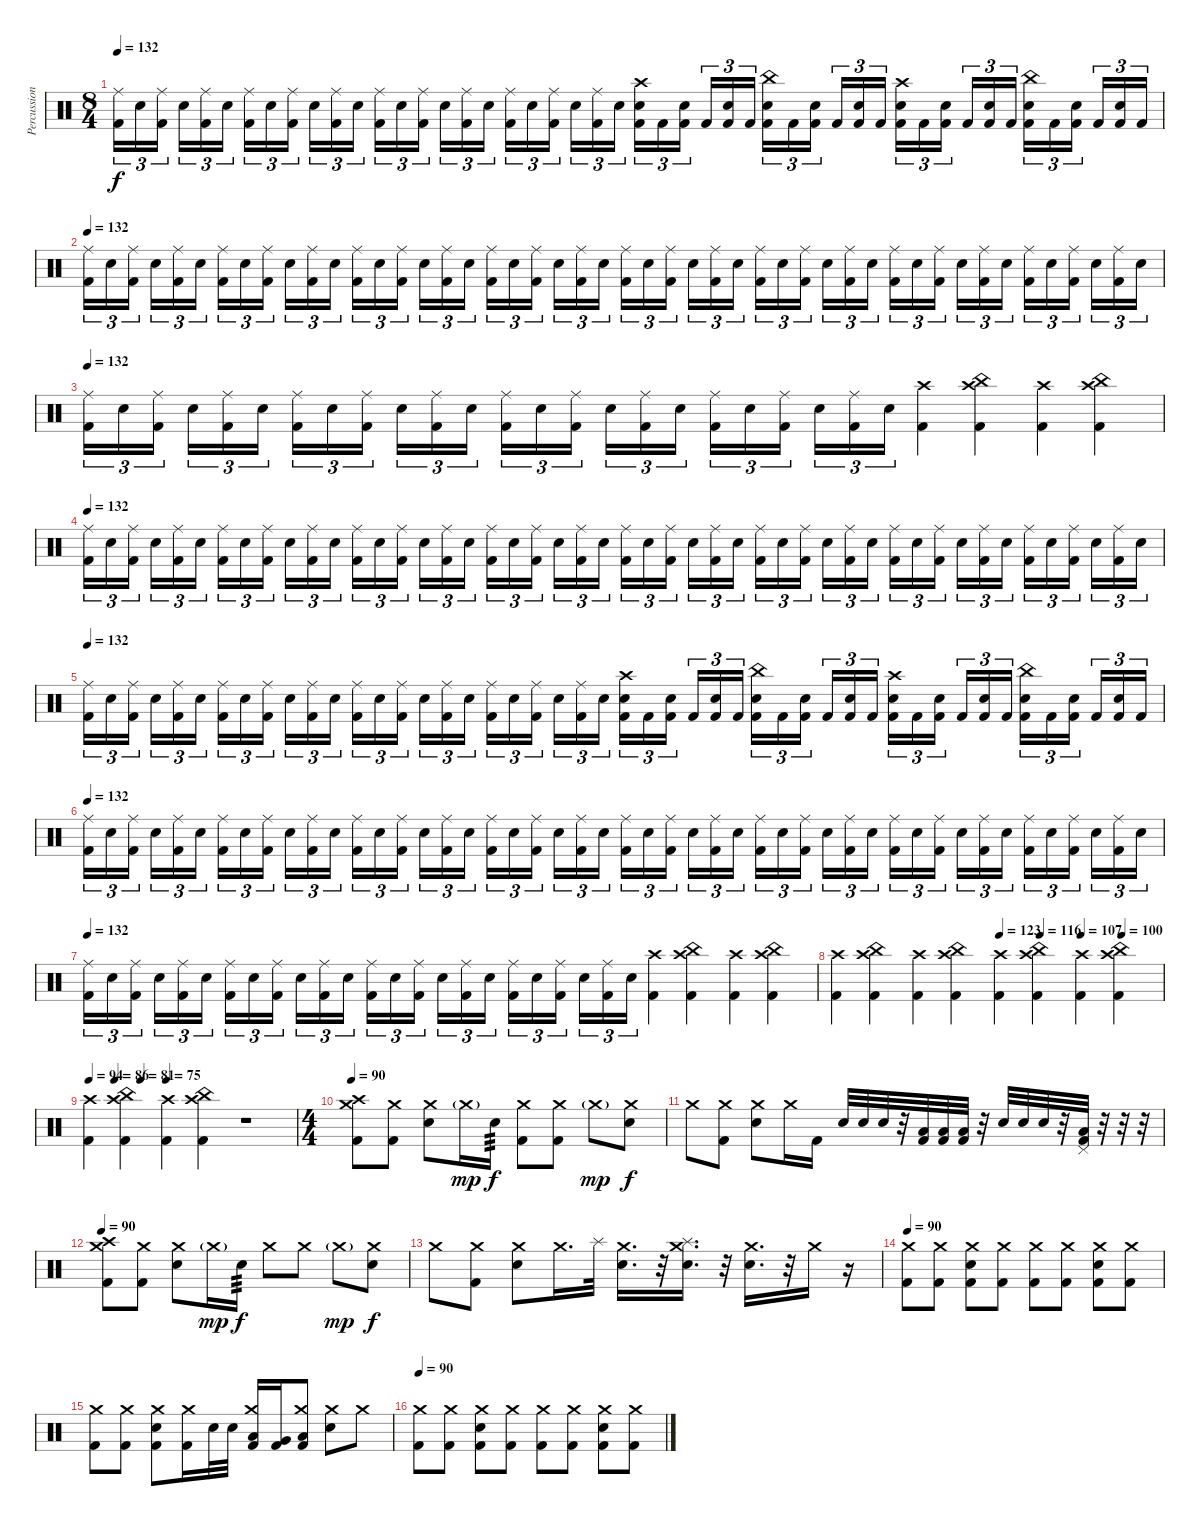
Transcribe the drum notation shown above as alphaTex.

\track ("Percussions" "Percussion") {instrument percussion}
\staff {score}
\articulation defaults
\ts (8 4)
\tempo 132
\clef neutral
\ks c
("Ride (middle)" "Kick (hit) 2").16{tu (3 2) dy f} "Electric Snare (hit)".16{tu (3 2)} ("Ride (middle)" "Kick (hit) 2").16{tu (3 2) beam splitsecondary} "Electric Snare (hit)".16{tu (3 2)} ("Ride (middle)" "Kick (hit) 2").16{tu (3 2)} "Electric Snare (hit)".16{tu (3 2)} ("Ride (middle)" "Kick (hit) 2").16{tu (3 2)} "Electric Snare (hit)".16{tu (3 2)} ("Ride (middle)" "Kick (hit) 2").16{tu (3 2) beam splitsecondary} "Electric Snare (hit)".16{tu (3 2)} ("Ride (middle)" "Kick (hit) 2").16{tu (3 2)} "Electric Snare (hit)".16{tu (3 2)} ("Ride (middle)" "Kick (hit) 2").16{tu (3 2)} "Electric Snare (hit)".16{tu (3 2)} ("Ride (middle)" "Kick (hit) 2").16{tu (3 2) beam splitsecondary} "Electric Snare (hit)".16{tu (3 2)} ("Ride (middle)" "Kick (hit) 2").16{tu (3 2)} "Electric Snare (hit)".16{tu (3 2)} ("Ride (middle)" "Kick (hit) 2").16{tu (3 2)} "Electric Snare (hit)".16{tu (3 2)} ("Ride (middle)" "Kick (hit) 2").16{tu (3 2) beam splitsecondary} "Electric Snare (hit)".16{tu (3 2)} ("Ride (middle)" "Kick (hit) 2").16{tu (3 2)} "Electric Snare (hit)".16{tu (3 2)} ("Crash high (hit)" "Electric Snare (hit)" "Kick (hit) 2").16{tu (3 2)} "Kick (hit) 2".16{tu (3 2)} ("Electric Snare (hit)" "Kick (hit) 2").16{tu (3 2) beam splitsecondary} "Kick (hit) 2".16{tu (3 2)} ("Electric Snare (hit)" "Kick (hit) 2").16{tu (3 2)} "Kick (hit) 2".16{tu (3 2)} ("China (hit)" "Electric Snare (hit)" "Kick (hit) 2").16{tu (3 2)} "Kick (hit) 2".16{tu (3 2)} ("Electric Snare (hit)" "Kick (hit) 2").16{tu (3 2) beam splitsecondary} "Kick (hit) 2".16{tu (3 2)} ("Electric Snare (hit)" "Kick (hit) 2").16{tu (3 2)} "Kick (hit) 2".16{tu (3 2)} ("Crash high (hit)" "Electric Snare (hit)" "Kick (hit) 2").16{tu (3 2)} "Kick (hit) 2".16{tu (3 2)} ("Electric Snare (hit)" "Kick (hit) 2").16{tu (3 2) beam splitsecondary} "Kick (hit) 2".16{tu (3 2)} ("Electric Snare (hit)" "Kick (hit) 2").16{tu (3 2)} "Kick (hit) 2".16{tu (3 2)} ("China (hit)" "Electric Snare (hit)" "Kick (hit) 2").16{tu (3 2)} "Kick (hit) 2".16{tu (3 2)} ("Electric Snare (hit)" "Kick (hit) 2").16{tu (3 2) beam splitsecondary} "Kick (hit) 2".16{tu (3 2)} ("Electric Snare (hit)" "Kick (hit) 2").16{tu (3 2)} "Kick (hit) 2".16{tu (3 2)} |
\tempo 132
("Ride (middle)" "Kick (hit) 2").16{tu (3 2) volume 13} "Electric Snare (hit)".16{tu (3 2)} ("Ride (middle)" "Kick (hit) 2").16{tu (3 2) beam splitsecondary} "Electric Snare (hit)".16{tu (3 2)} ("Ride (middle)" "Kick (hit) 2").16{tu (3 2)} "Electric Snare (hit)".16{tu (3 2)} ("Ride (middle)" "Kick (hit) 2").16{tu (3 2)} "Electric Snare (hit)".16{tu (3 2)} ("Ride (middle)" "Kick (hit) 2").16{tu (3 2) beam splitsecondary} "Electric Snare (hit)".16{tu (3 2)} ("Ride (middle)" "Kick (hit) 2").16{tu (3 2)} "Electric Snare (hit)".16{tu (3 2)} ("Ride (middle)" "Kick (hit) 2").16{tu (3 2)} "Electric Snare (hit)".16{tu (3 2)} ("Ride (middle)" "Kick (hit) 2").16{tu (3 2) beam splitsecondary} "Electric Snare (hit)".16{tu (3 2)} ("Ride (middle)" "Kick (hit) 2").16{tu (3 2)} "Electric Snare (hit)".16{tu (3 2)} ("Ride (middle)" "Kick (hit) 2").16{tu (3 2)} "Electric Snare (hit)".16{tu (3 2)} ("Ride (middle)" "Kick (hit) 2").16{tu (3 2) beam splitsecondary} "Electric Snare (hit)".16{tu (3 2)} ("Ride (middle)" "Kick (hit) 2").16{tu (3 2)} "Electric Snare (hit)".16{tu (3 2)} ("Ride (middle)" "Kick (hit) 2").16{tu (3 2)} "Electric Snare (hit)".16{tu (3 2)} ("Ride (middle)" "Kick (hit) 2").16{tu (3 2) beam splitsecondary} "Electric Snare (hit)".16{tu (3 2)} ("Ride (middle)" "Kick (hit) 2").16{tu (3 2)} "Electric Snare (hit)".16{tu (3 2)} ("Ride (middle)" "Kick (hit) 2").16{tu (3 2)} "Electric Snare (hit)".16{tu (3 2)} ("Ride (middle)" "Kick (hit) 2").16{tu (3 2) beam splitsecondary} "Electric Snare (hit)".16{tu (3 2)} ("Ride (middle)" "Kick (hit) 2").16{tu (3 2)} "Electric Snare (hit)".16{tu (3 2)} ("Ride (middle)" "Kick (hit) 2").16{tu (3 2)} "Electric Snare (hit)".16{tu (3 2)} ("Ride (middle)" "Kick (hit) 2").16{tu (3 2) beam splitsecondary} "Electric Snare (hit)".16{tu (3 2)} ("Ride (middle)" "Kick (hit) 2").16{tu (3 2)} "Electric Snare (hit)".16{tu (3 2)} ("Ride (middle)" "Kick (hit) 2").16{tu (3 2)} "Electric Snare (hit)".16{tu (3 2)} ("Ride (middle)" "Kick (hit) 2").16{tu (3 2) beam splitsecondary} "Electric Snare (hit)".16{tu (3 2)} ("Ride (middle)" "Kick (hit) 2").16{tu (3 2)} "Electric Snare (hit)".16{tu (3 2)} |
\tempo 132
("Ride (middle)" "Kick (hit) 2").16{tu (3 2)} "Electric Snare (hit)".16{tu (3 2)} ("Ride (middle)" "Kick (hit) 2").16{tu (3 2) beam splitsecondary} "Electric Snare (hit)".16{tu (3 2)} ("Ride (middle)" "Kick (hit) 2").16{tu (3 2)} "Electric Snare (hit)".16{tu (3 2)} ("Ride (middle)" "Kick (hit) 2").16{tu (3 2)} "Electric Snare (hit)".16{tu (3 2)} ("Ride (middle)" "Kick (hit) 2").16{tu (3 2) beam splitsecondary} "Electric Snare (hit)".16{tu (3 2)} ("Ride (middle)" "Kick (hit) 2").16{tu (3 2)} "Electric Snare (hit)".16{tu (3 2)} ("Ride (middle)" "Kick (hit) 2").16{tu (3 2)} "Electric Snare (hit)".16{tu (3 2)} ("Ride (middle)" "Kick (hit) 2").16{tu (3 2) beam splitsecondary} "Electric Snare (hit)".16{tu (3 2)} ("Ride (middle)" "Kick (hit) 2").16{tu (3 2)} "Electric Snare (hit)".16{tu (3 2)} ("Ride (middle)" "Kick (hit) 2").16{tu (3 2)} "Electric Snare (hit)".16{tu (3 2)} ("Ride (middle)" "Kick (hit) 2").16{tu (3 2) beam splitsecondary} "Electric Snare (hit)".16{tu (3 2)} ("Ride (middle)" "Kick (hit) 2").16{tu (3 2)} "Electric Snare (hit)".16{tu (3 2)} ("Crash high (hit)" "Kick (hit) 2").4 ("Crash high (hit)" "China (hit)" "Kick (hit) 2").4 ("Crash high (hit)" "Kick (hit) 2").4 ("Crash high (hit)" "China (hit)" "Kick (hit) 2").4 |
\tempo 132
("Ride (middle)" "Kick (hit) 2").16{tu (3 2) volume 13} "Electric Snare (hit)".16{tu (3 2)} ("Ride (middle)" "Kick (hit) 2").16{tu (3 2) beam splitsecondary} "Electric Snare (hit)".16{tu (3 2)} ("Ride (middle)" "Kick (hit) 2").16{tu (3 2)} "Electric Snare (hit)".16{tu (3 2)} ("Ride (middle)" "Kick (hit) 2").16{tu (3 2)} "Electric Snare (hit)".16{tu (3 2)} ("Ride (middle)" "Kick (hit) 2").16{tu (3 2) beam splitsecondary} "Electric Snare (hit)".16{tu (3 2)} ("Ride (middle)" "Kick (hit) 2").16{tu (3 2)} "Electric Snare (hit)".16{tu (3 2)} ("Ride (middle)" "Kick (hit) 2").16{tu (3 2)} "Electric Snare (hit)".16{tu (3 2)} ("Ride (middle)" "Kick (hit) 2").16{tu (3 2) beam splitsecondary} "Electric Snare (hit)".16{tu (3 2)} ("Ride (middle)" "Kick (hit) 2").16{tu (3 2)} "Electric Snare (hit)".16{tu (3 2)} ("Ride (middle)" "Kick (hit) 2").16{tu (3 2)} "Electric Snare (hit)".16{tu (3 2)} ("Ride (middle)" "Kick (hit) 2").16{tu (3 2) beam splitsecondary} "Electric Snare (hit)".16{tu (3 2)} ("Ride (middle)" "Kick (hit) 2").16{tu (3 2)} "Electric Snare (hit)".16{tu (3 2)} ("Ride (middle)" "Kick (hit) 2").16{tu (3 2)} "Electric Snare (hit)".16{tu (3 2)} ("Ride (middle)" "Kick (hit) 2").16{tu (3 2) beam splitsecondary} "Electric Snare (hit)".16{tu (3 2)} ("Ride (middle)" "Kick (hit) 2").16{tu (3 2)} "Electric Snare (hit)".16{tu (3 2)} ("Ride (middle)" "Kick (hit) 2").16{tu (3 2)} "Electric Snare (hit)".16{tu (3 2)} ("Ride (middle)" "Kick (hit) 2").16{tu (3 2) beam splitsecondary} "Electric Snare (hit)".16{tu (3 2)} ("Ride (middle)" "Kick (hit) 2").16{tu (3 2)} "Electric Snare (hit)".16{tu (3 2)} ("Ride (middle)" "Kick (hit) 2").16{tu (3 2)} "Electric Snare (hit)".16{tu (3 2)} ("Ride (middle)" "Kick (hit) 2").16{tu (3 2) beam splitsecondary} "Electric Snare (hit)".16{tu (3 2)} ("Ride (middle)" "Kick (hit) 2").16{tu (3 2)} "Electric Snare (hit)".16{tu (3 2)} ("Ride (middle)" "Kick (hit) 2").16{tu (3 2)} "Electric Snare (hit)".16{tu (3 2)} ("Ride (middle)" "Kick (hit) 2").16{tu (3 2) beam splitsecondary} "Electric Snare (hit)".16{tu (3 2)} ("Ride (middle)" "Kick (hit) 2").16{tu (3 2)} "Electric Snare (hit)".16{tu (3 2)} |
\tempo 132
("Ride (middle)" "Kick (hit) 2").16{tu (3 2)} "Electric Snare (hit)".16{tu (3 2)} ("Ride (middle)" "Kick (hit) 2").16{tu (3 2) beam splitsecondary} "Electric Snare (hit)".16{tu (3 2)} ("Ride (middle)" "Kick (hit) 2").16{tu (3 2)} "Electric Snare (hit)".16{tu (3 2)} ("Ride (middle)" "Kick (hit) 2").16{tu (3 2)} "Electric Snare (hit)".16{tu (3 2)} ("Ride (middle)" "Kick (hit) 2").16{tu (3 2) beam splitsecondary} "Electric Snare (hit)".16{tu (3 2)} ("Ride (middle)" "Kick (hit) 2").16{tu (3 2)} "Electric Snare (hit)".16{tu (3 2)} ("Ride (middle)" "Kick (hit) 2").16{tu (3 2)} "Electric Snare (hit)".16{tu (3 2)} ("Ride (middle)" "Kick (hit) 2").16{tu (3 2) beam splitsecondary} "Electric Snare (hit)".16{tu (3 2)} ("Ride (middle)" "Kick (hit) 2").16{tu (3 2)} "Electric Snare (hit)".16{tu (3 2)} ("Ride (middle)" "Kick (hit) 2").16{tu (3 2)} "Electric Snare (hit)".16{tu (3 2)} ("Ride (middle)" "Kick (hit) 2").16{tu (3 2) beam splitsecondary} "Electric Snare (hit)".16{tu (3 2)} ("Ride (middle)" "Kick (hit) 2").16{tu (3 2)} "Electric Snare (hit)".16{tu (3 2)} ("Crash high (hit)" "Electric Snare (hit)" "Kick (hit) 2").16{tu (3 2)} "Kick (hit) 2".16{tu (3 2)} ("Electric Snare (hit)" "Kick (hit) 2").16{tu (3 2) beam splitsecondary} "Kick (hit) 2".16{tu (3 2)} ("Electric Snare (hit)" "Kick (hit) 2").16{tu (3 2)} "Kick (hit) 2".16{tu (3 2)} ("China (hit)" "Electric Snare (hit)" "Kick (hit) 2").16{tu (3 2)} "Kick (hit) 2".16{tu (3 2)} ("Electric Snare (hit)" "Kick (hit) 2").16{tu (3 2) beam splitsecondary} "Kick (hit) 2".16{tu (3 2)} ("Electric Snare (hit)" "Kick (hit) 2").16{tu (3 2)} "Kick (hit) 2".16{tu (3 2)} ("Crash high (hit)" "Electric Snare (hit)" "Kick (hit) 2").16{tu (3 2)} "Kick (hit) 2".16{tu (3 2)} ("Electric Snare (hit)" "Kick (hit) 2").16{tu (3 2) beam splitsecondary} "Kick (hit) 2".16{tu (3 2)} ("Electric Snare (hit)" "Kick (hit) 2").16{tu (3 2)} "Kick (hit) 2".16{tu (3 2)} ("China (hit)" "Electric Snare (hit)" "Kick (hit) 2").16{tu (3 2)} "Kick (hit) 2".16{tu (3 2)} ("Electric Snare (hit)" "Kick (hit) 2").16{tu (3 2) beam splitsecondary} "Kick (hit) 2".16{tu (3 2)} ("Electric Snare (hit)" "Kick (hit) 2").16{tu (3 2)} "Kick (hit) 2".16{tu (3 2)} |
\tempo 132
("Ride (middle)" "Kick (hit) 2").16{tu (3 2) volume 13} "Electric Snare (hit)".16{tu (3 2)} ("Ride (middle)" "Kick (hit) 2").16{tu (3 2) beam splitsecondary} "Electric Snare (hit)".16{tu (3 2)} ("Ride (middle)" "Kick (hit) 2").16{tu (3 2)} "Electric Snare (hit)".16{tu (3 2)} ("Ride (middle)" "Kick (hit) 2").16{tu (3 2)} "Electric Snare (hit)".16{tu (3 2)} ("Ride (middle)" "Kick (hit) 2").16{tu (3 2) beam splitsecondary} "Electric Snare (hit)".16{tu (3 2)} ("Ride (middle)" "Kick (hit) 2").16{tu (3 2)} "Electric Snare (hit)".16{tu (3 2)} ("Ride (middle)" "Kick (hit) 2").16{tu (3 2)} "Electric Snare (hit)".16{tu (3 2)} ("Ride (middle)" "Kick (hit) 2").16{tu (3 2) beam splitsecondary} "Electric Snare (hit)".16{tu (3 2)} ("Ride (middle)" "Kick (hit) 2").16{tu (3 2)} "Electric Snare (hit)".16{tu (3 2)} ("Ride (middle)" "Kick (hit) 2").16{tu (3 2)} "Electric Snare (hit)".16{tu (3 2)} ("Ride (middle)" "Kick (hit) 2").16{tu (3 2) beam splitsecondary} "Electric Snare (hit)".16{tu (3 2)} ("Ride (middle)" "Kick (hit) 2").16{tu (3 2)} "Electric Snare (hit)".16{tu (3 2)} ("Ride (middle)" "Kick (hit) 2").16{tu (3 2)} "Electric Snare (hit)".16{tu (3 2)} ("Ride (middle)" "Kick (hit) 2").16{tu (3 2) beam splitsecondary} "Electric Snare (hit)".16{tu (3 2)} ("Ride (middle)" "Kick (hit) 2").16{tu (3 2)} "Electric Snare (hit)".16{tu (3 2)} ("Ride (middle)" "Kick (hit) 2").16{tu (3 2)} "Electric Snare (hit)".16{tu (3 2)} ("Ride (middle)" "Kick (hit) 2").16{tu (3 2) beam splitsecondary} "Electric Snare (hit)".16{tu (3 2)} ("Ride (middle)" "Kick (hit) 2").16{tu (3 2)} "Electric Snare (hit)".16{tu (3 2)} ("Ride (middle)" "Kick (hit) 2").16{tu (3 2)} "Electric Snare (hit)".16{tu (3 2)} ("Ride (middle)" "Kick (hit) 2").16{tu (3 2) beam splitsecondary} "Electric Snare (hit)".16{tu (3 2)} ("Ride (middle)" "Kick (hit) 2").16{tu (3 2)} "Electric Snare (hit)".16{tu (3 2)} ("Ride (middle)" "Kick (hit) 2").16{tu (3 2)} "Electric Snare (hit)".16{tu (3 2)} ("Ride (middle)" "Kick (hit) 2").16{tu (3 2) beam splitsecondary} "Electric Snare (hit)".16{tu (3 2)} ("Ride (middle)" "Kick (hit) 2").16{tu (3 2)} "Electric Snare (hit)".16{tu (3 2)} |
\tempo 132
("Ride (middle)" "Kick (hit) 2").16{tu (3 2)} "Electric Snare (hit)".16{tu (3 2)} ("Ride (middle)" "Kick (hit) 2").16{tu (3 2) beam splitsecondary} "Electric Snare (hit)".16{tu (3 2)} ("Ride (middle)" "Kick (hit) 2").16{tu (3 2)} "Electric Snare (hit)".16{tu (3 2)} ("Ride (middle)" "Kick (hit) 2").16{tu (3 2)} "Electric Snare (hit)".16{tu (3 2)} ("Ride (middle)" "Kick (hit) 2").16{tu (3 2) beam splitsecondary} "Electric Snare (hit)".16{tu (3 2)} ("Ride (middle)" "Kick (hit) 2").16{tu (3 2)} "Electric Snare (hit)".16{tu (3 2)} ("Ride (middle)" "Kick (hit) 2").16{tu (3 2)} "Electric Snare (hit)".16{tu (3 2)} ("Ride (middle)" "Kick (hit) 2").16{tu (3 2) beam splitsecondary} "Electric Snare (hit)".16{tu (3 2)} ("Ride (middle)" "Kick (hit) 2").16{tu (3 2)} "Electric Snare (hit)".16{tu (3 2)} ("Ride (middle)" "Kick (hit) 2").16{tu (3 2)} "Electric Snare (hit)".16{tu (3 2)} ("Ride (middle)" "Kick (hit) 2").16{tu (3 2) beam splitsecondary} "Electric Snare (hit)".16{tu (3 2)} ("Ride (middle)" "Kick (hit) 2").16{tu (3 2)} "Electric Snare (hit)".16{tu (3 2)} ("Crash high (hit)" "Kick (hit) 2").4 ("Crash high (hit)" "China (hit)" "Kick (hit) 2").4 ("Crash high (hit)" "Kick (hit) 2").4 ("Crash high (hit)" "China (hit)" "Kick (hit) 2").4 |
\tempo (123 0.5)
\tempo (116 0.625)
\tempo (107 0.75)
\tempo (100 0.875)
("Crash high (hit)" "Kick (hit) 2").4 ("Crash high (hit)" "China (hit)" "Kick (hit) 2").4 ("Crash high (hit)" "Kick (hit) 2").4 ("Crash high (hit)" "China (hit)" "Kick (hit) 2").4 ("Crash high (hit)" "Kick (hit) 2").4 ("Crash high (hit)" "China (hit)" "Kick (hit) 2").4 ("Crash high (hit)" "Kick (hit) 2").4 ("Crash high (hit)" "China (hit)" "Kick (hit) 2").4 |
\tempo 94
\tempo (86 0.125)
\tempo (81 0.25)
\tempo (75 0.375)
("Crash high (hit)" "Kick (hit) 2").4 ("Crash high (hit)" "China (hit)" "Kick (hit) 2").4 ("Crash high (hit)" "Kick (hit) 2").4 ("Crash high (hit)" "China (hit)" "Kick (hit) 2").4 r.1 |
\ts (4 4)
\tempo 90
("Crash medium (hit)" "Crash high (hit)" "Kick (hit) 2").8 ("Crash medium (hit)" "Kick (hit) 2").8 ("Crash medium (hit)" "Electric Snare (hit)").8 "Crash medium (hit)"{g}.16{dy mp} "Electric Snare (hit)".16{tp 3 dy f} ("Crash medium (hit)" "Kick (hit) 2").8 ("Crash medium (hit)" "Kick (hit) 2").8 "Crash medium (hit)"{g}.8{dy mp} ("Crash medium (hit)" "Electric Snare (hit)").8{dy f} |
"Crash medium (hit)".8 ("Crash medium (hit)" "Kick (hit) 2").8 ("Crash medium (hit)" "Electric Snare (hit)").8 "Crash medium (hit)".16 "Kick (hit) 2".16 "Electric Snare (hit)".32 "Electric Snare (hit)".32 "Electric Snare (hit)".32 r.32 ("Low Floor Tom (hit)" "Kick (hit) 2").32 ("Low Floor Tom (hit)" "Kick (hit) 2").32 ("Low Floor Tom (hit)" "Kick (hit) 2").32 r.32 "Electric Snare (hit)".32 "Electric Snare (hit)".32 "Electric Snare (hit)".32 r.32 ("Pedal Hi-Hat (hit)" "Low Floor Tom (hit)" "Kick (hit) 2").32 r.32 r.32 r.32 |
\tempo 90
("Crash medium (hit)" "Crash high (hit)" "Kick (hit) 2").8 ("Crash medium (hit)" "Kick (hit) 2").8 ("Crash medium (hit)" "Electric Snare (hit)").8 "Crash medium (hit)"{g}.16{dy mp} "Electric Snare (hit)".16{tp 3 dy f} "Crash medium (hit)".8 "Crash medium (hit)".8 "Crash medium (hit)"{g}.8{dy mp} ("Crash medium (hit)" "Electric Snare (hit)").8{dy f} |
"Crash medium (hit)".8 ("Crash medium (hit)" "Kick (hit) 2").8 ("Crash medium (hit)" "Electric Snare (hit)").8 "Crash medium (hit)".16{d} "Splash (hit)".32 ("Crash medium (hit)" "Electric Snare (hit)").16{d} r.32 ("Splash (hit)" "Crash medium (hit)" "Electric Snare (hit)").16{d} r.32 ("Crash medium (hit)" "Electric Snare (hit)").16{d} r.32 "Crash medium (hit)".16 r.16 |
\tempo 90
("Crash medium (hit)" "Kick (hit) 2").8 ("Crash medium (hit)" "Kick (hit) 2").8 ("Crash medium (hit)" "Electric Snare (hit)" "Kick (hit) 2").8 ("Crash medium (hit)" "Kick (hit) 2").8 ("Crash medium (hit)" "Kick (hit) 2").8 ("Crash medium (hit)" "Kick (hit) 2").8 ("Crash medium (hit)" "Electric Snare (hit)" "Kick (hit) 2").8 ("Crash medium (hit)" "Kick (hit) 2").8 |
("Crash medium (hit)" "Kick (hit) 2").8 ("Crash medium (hit)" "Kick (hit) 2").8 ("Crash medium (hit)" "Electric Snare (hit)" "Kick (hit) 2").8 ("Crash medium (hit)" "Kick (hit) 2").16 "Electric Snare (hit)".32 "Electric Snare (hit)".32 ("Crash medium (hit)" "Low Tom (hit)" "Kick (hit) 2").16 ("Very Low Tom (hit)" "Kick (hit) 2").16 ("Crash medium (hit)" "Low Floor Tom (hit)" "Kick (hit) 2").8 ("Crash medium (hit)" "Electric Snare (hit)").8 "Crash medium (hit)".8 |
\tempo 90
("Crash medium (hit)" "Kick (hit) 2").8 ("Crash medium (hit)" "Kick (hit) 2").8 ("Crash medium (hit)" "Electric Snare (hit)" "Kick (hit) 2").8 ("Crash medium (hit)" "Kick (hit) 2").8 ("Crash medium (hit)" "Kick (hit) 2").8 ("Crash medium (hit)" "Kick (hit) 2").8 ("Crash medium (hit)" "Electric Snare (hit)" "Kick (hit) 2").8 ("Crash medium (hit)" "Kick (hit) 2").8
